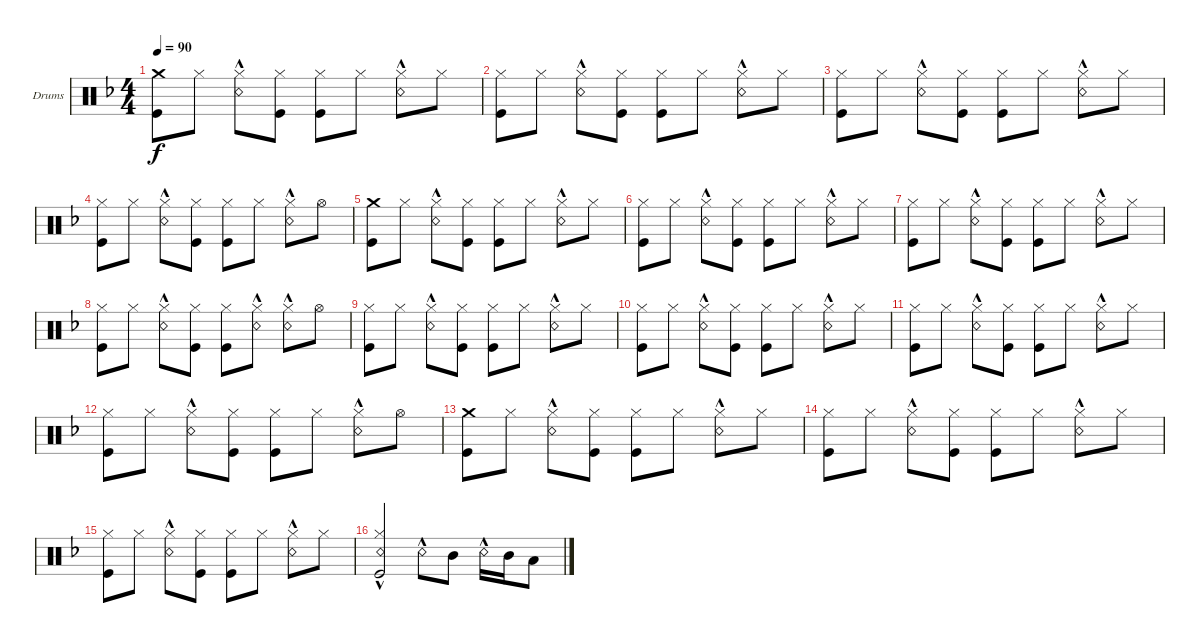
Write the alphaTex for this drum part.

\defaultSystemsLayout 4
\bracketExtendMode groupsimilarinstruments
\firstSystemTrackNameOrientation horizontal
\otherSystemsTrackNameOrientation horizontal
\track ("Drumkit" "Drums") {instrument percussion}
\staff {score}
\articulation defaults
\ts (4 4)
\tempo 90
\clef neutral
\ks dminor
("Kick (hit)" "Crash medium (hit)").8{dy f} "Hi-Hat (closed)".8 ("Hi-Hat (closed)" "Snare (rim shot)"{hac}).8 ("Hi-Hat (closed)" "Kick (hit)").8 ("Kick (hit)" "Hi-Hat (closed)").8 "Hi-Hat (closed)".8 ("Snare (rim shot)"{hac} "Hi-Hat (closed)").8 "Hi-Hat (closed)".8 |
("Kick (hit)" "Hi-Hat (closed)").8 "Hi-Hat (closed)".8 ("Hi-Hat (closed)" "Snare (rim shot)"{hac}).8 ("Hi-Hat (closed)" "Kick (hit)").8 ("Kick (hit)" "Hi-Hat (closed)").8 "Hi-Hat (closed)".8 ("Snare (rim shot)"{hac} "Hi-Hat (closed)").8 "Hi-Hat (closed)".8 |
("Kick (hit)" "Hi-Hat (closed)").8 "Hi-Hat (closed)".8 ("Hi-Hat (closed)" "Snare (rim shot)"{hac}).8 ("Hi-Hat (closed)" "Kick (hit)").8 ("Kick (hit)" "Hi-Hat (closed)").8 "Hi-Hat (closed)".8 ("Snare (rim shot)"{hac} "Hi-Hat (closed)").8 "Hi-Hat (closed)".8 |
("Kick (hit)" "Hi-Hat (closed)").8 "Hi-Hat (closed)".8 ("Hi-Hat (closed)" "Snare (rim shot)"{hac}).8 ("Hi-Hat (closed)" "Kick (hit)").8 ("Kick (hit)" "Hi-Hat (closed)").8 "Hi-Hat (closed)".8 ("Snare (rim shot)"{hac} "Hi-Hat (closed)").8 "Hi-Hat (open)".8 |
("Kick (hit)" "Crash medium (hit)").8 "Hi-Hat (closed)".8 ("Hi-Hat (closed)" "Snare (rim shot)"{hac}).8 ("Hi-Hat (closed)" "Kick (hit)").8 ("Kick (hit)" "Hi-Hat (closed)").8 "Hi-Hat (closed)".8 ("Snare (rim shot)"{hac} "Hi-Hat (closed)").8 "Hi-Hat (closed)".8 |
("Kick (hit)" "Hi-Hat (closed)").8 "Hi-Hat (closed)".8 ("Hi-Hat (closed)" "Snare (rim shot)"{hac}).8 ("Hi-Hat (closed)" "Kick (hit)").8 ("Kick (hit)" "Hi-Hat (closed)").8 "Hi-Hat (closed)".8 ("Snare (rim shot)"{hac} "Hi-Hat (closed)").8 "Hi-Hat (closed)".8 |
("Kick (hit)" "Hi-Hat (closed)").8 "Hi-Hat (closed)".8 ("Hi-Hat (closed)" "Snare (rim shot)"{hac}).8 ("Hi-Hat (closed)" "Kick (hit)").8 ("Kick (hit)" "Hi-Hat (closed)").8 "Hi-Hat (closed)".8 ("Snare (rim shot)"{hac} "Hi-Hat (closed)").8 "Hi-Hat (closed)".8 |
("Kick (hit)" "Hi-Hat (closed)").8 "Hi-Hat (closed)".8 ("Hi-Hat (closed)" "Snare (rim shot)"{hac}).8 ("Hi-Hat (closed)" "Kick (hit)").8 ("Kick (hit)" "Hi-Hat (closed)").8 ("Hi-Hat (closed)" "Snare (rim shot)"{hac}).8 ("Snare (rim shot)"{hac} "Hi-Hat (closed)").8 "Hi-Hat (open)".8 |
("Kick (hit)" "Hi-Hat (closed)").8 "Hi-Hat (closed)".8 ("Hi-Hat (closed)" "Snare (rim shot)"{hac}).8 ("Hi-Hat (closed)" "Kick (hit)").8 ("Kick (hit)" "Hi-Hat (closed)").8 "Hi-Hat (closed)".8 ("Snare (rim shot)"{hac} "Hi-Hat (closed)").8 "Hi-Hat (closed)".8 |
("Kick (hit)" "Hi-Hat (closed)").8 "Hi-Hat (closed)".8 ("Hi-Hat (closed)" "Snare (rim shot)"{hac}).8 ("Hi-Hat (closed)" "Kick (hit)").8 ("Kick (hit)" "Hi-Hat (closed)").8 "Hi-Hat (closed)".8 ("Snare (rim shot)"{hac} "Hi-Hat (closed)").8 "Hi-Hat (closed)".8 |
("Kick (hit)" "Hi-Hat (closed)").8 "Hi-Hat (closed)".8 ("Hi-Hat (closed)" "Snare (rim shot)"{hac}).8 ("Hi-Hat (closed)" "Kick (hit)").8 ("Kick (hit)" "Hi-Hat (closed)").8 "Hi-Hat (closed)".8 ("Snare (rim shot)"{hac} "Hi-Hat (closed)").8 "Hi-Hat (closed)".8 |
("Kick (hit)" "Hi-Hat (closed)").8 "Hi-Hat (closed)".8 ("Hi-Hat (closed)" "Snare (rim shot)"{hac}).8 ("Hi-Hat (closed)" "Kick (hit)").8 ("Kick (hit)" "Hi-Hat (closed)").8 "Hi-Hat (closed)".8 ("Snare (rim shot)"{hac} "Hi-Hat (closed)").8 "Hi-Hat (open)".8 |
("Kick (hit)" "Crash medium (hit)").8 "Hi-Hat (closed)".8 ("Hi-Hat (closed)" "Snare (rim shot)"{hac}).8 ("Hi-Hat (closed)" "Kick (hit)").8 ("Kick (hit)" "Hi-Hat (closed)").8 "Hi-Hat (closed)".8 ("Snare (rim shot)"{hac} "Hi-Hat (closed)").8 "Hi-Hat (closed)".8 |
("Kick (hit)" "Hi-Hat (closed)").8 "Hi-Hat (closed)".8 ("Hi-Hat (closed)" "Snare (rim shot)"{hac}).8 ("Hi-Hat (closed)" "Kick (hit)").8 ("Kick (hit)" "Hi-Hat (closed)").8 "Hi-Hat (closed)".8 ("Snare (rim shot)"{hac} "Hi-Hat (closed)").8 "Hi-Hat (closed)".8 |
("Kick (hit)" "Hi-Hat (closed)").8 "Hi-Hat (closed)".8 ("Hi-Hat (closed)" "Snare (rim shot)"{hac}).8 ("Hi-Hat (closed)" "Kick (hit)").8 ("Kick (hit)" "Hi-Hat (closed)").8 "Hi-Hat (closed)".8 ("Snare (rim shot)"{hac} "Hi-Hat (closed)").8 "Hi-Hat (closed)".8 |
("Kick (hit)" "Hi-Hat (closed)"{hac} "Snare (rim shot)"{hac}).2 "Snare (rim shot)"{hac}.8 "Mid Tom (hit)".8 "Snare (rim shot)"{hac}.16 "Mid Tom (hit)".16 "Low Tom (hit)".8
